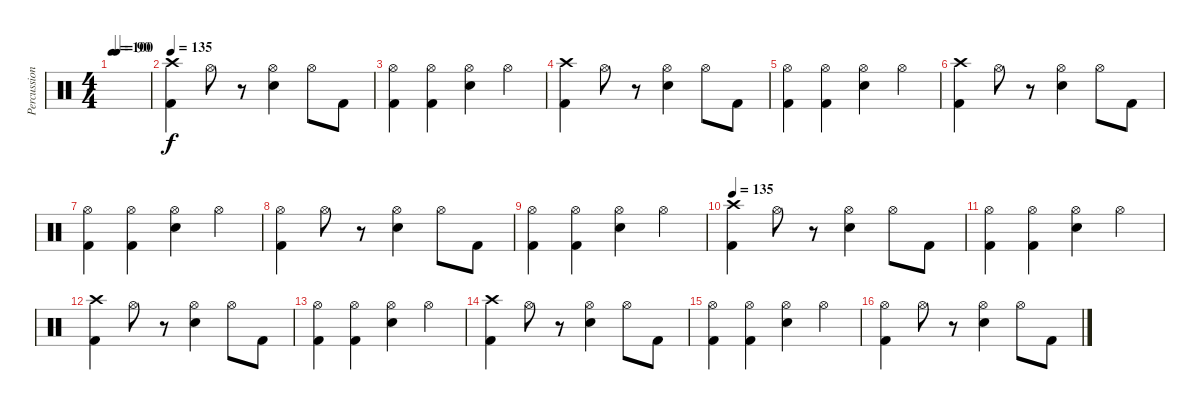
\track ("Percussion" "Percussion") {instrument percussion}
\staff {score}
\articulation defaults
\ts (4 4)
\tempo 100
\tempo (90 0.125)
\clef neutral
\ks c
|
\tempo 135
("Crash high (hit)" "Kick (hit) 2").4 "Hi-Hat (open)".8 r.8 ("Hi-Hat (open)" "Snare (hit) 2").4 "Hi-Hat (open)".8 "Kick (hit) 2".8 |
("Hi-Hat (open)" "Kick (hit) 2").4 ("Hi-Hat (open)" "Kick (hit) 2").4 ("Hi-Hat (open)" "Snare (hit) 2").4 "Hi-Hat (open)".4 |
("Crash high (hit)" "Kick (hit) 2").4 "Hi-Hat (open)".8 r.8 ("Hi-Hat (open)" "Snare (hit) 2").4 "Hi-Hat (open)".8 "Kick (hit) 2".8 |
("Hi-Hat (open)" "Kick (hit) 2").4 ("Hi-Hat (open)" "Kick (hit) 2").4 ("Hi-Hat (open)" "Snare (hit) 2").4 "Hi-Hat (open)".4 |
("Crash high (hit)" "Kick (hit) 2").4 "Hi-Hat (open)".8 r.8 ("Hi-Hat (open)" "Snare (hit) 2").4 "Hi-Hat (open)".8 "Kick (hit) 2".8 |
("Hi-Hat (open)" "Kick (hit) 2").4 ("Hi-Hat (open)" "Kick (hit) 2").4 ("Hi-Hat (open)" "Snare (hit) 2").4 "Hi-Hat (open)".4 |
("Hi-Hat (open)" "Kick (hit) 2").4 "Hi-Hat (open)".8 r.8 ("Hi-Hat (open)" "Snare (hit) 2").4 "Hi-Hat (open)".8 "Kick (hit) 2".8 |
("Hi-Hat (open)" "Kick (hit) 2").4 ("Hi-Hat (open)" "Kick (hit) 2").4 ("Hi-Hat (open)" "Snare (hit) 2").4 "Hi-Hat (open)".4 |
\tempo 135
("Crash high (hit)" "Kick (hit) 2").4 "Hi-Hat (open)".8 r.8 ("Hi-Hat (open)" "Snare (hit) 2").4 "Hi-Hat (open)".8 "Kick (hit) 2".8 |
("Hi-Hat (open)" "Kick (hit) 2").4 ("Hi-Hat (open)" "Kick (hit) 2").4 ("Hi-Hat (open)" "Snare (hit) 2").4 "Hi-Hat (open)".4 |
("Crash high (hit)" "Kick (hit) 2").4 "Hi-Hat (open)".8 r.8 ("Hi-Hat (open)" "Snare (hit) 2").4 "Hi-Hat (open)".8 "Kick (hit) 2".8 |
("Hi-Hat (open)" "Kick (hit) 2").4 ("Hi-Hat (open)" "Kick (hit) 2").4 ("Hi-Hat (open)" "Snare (hit) 2").4 "Hi-Hat (open)".4 |
("Crash high (hit)" "Kick (hit) 2").4 "Hi-Hat (open)".8 r.8 ("Hi-Hat (open)" "Snare (hit) 2").4 "Hi-Hat (open)".8 "Kick (hit) 2".8 |
("Hi-Hat (open)" "Kick (hit) 2").4 ("Hi-Hat (open)" "Kick (hit) 2").4 ("Hi-Hat (open)" "Snare (hit) 2").4 "Hi-Hat (open)".4 |
("Hi-Hat (open)" "Kick (hit) 2").4 "Hi-Hat (open)".8 r.8 ("Hi-Hat (open)" "Snare (hit) 2").4 "Hi-Hat (open)".8 "Kick (hit) 2".8
